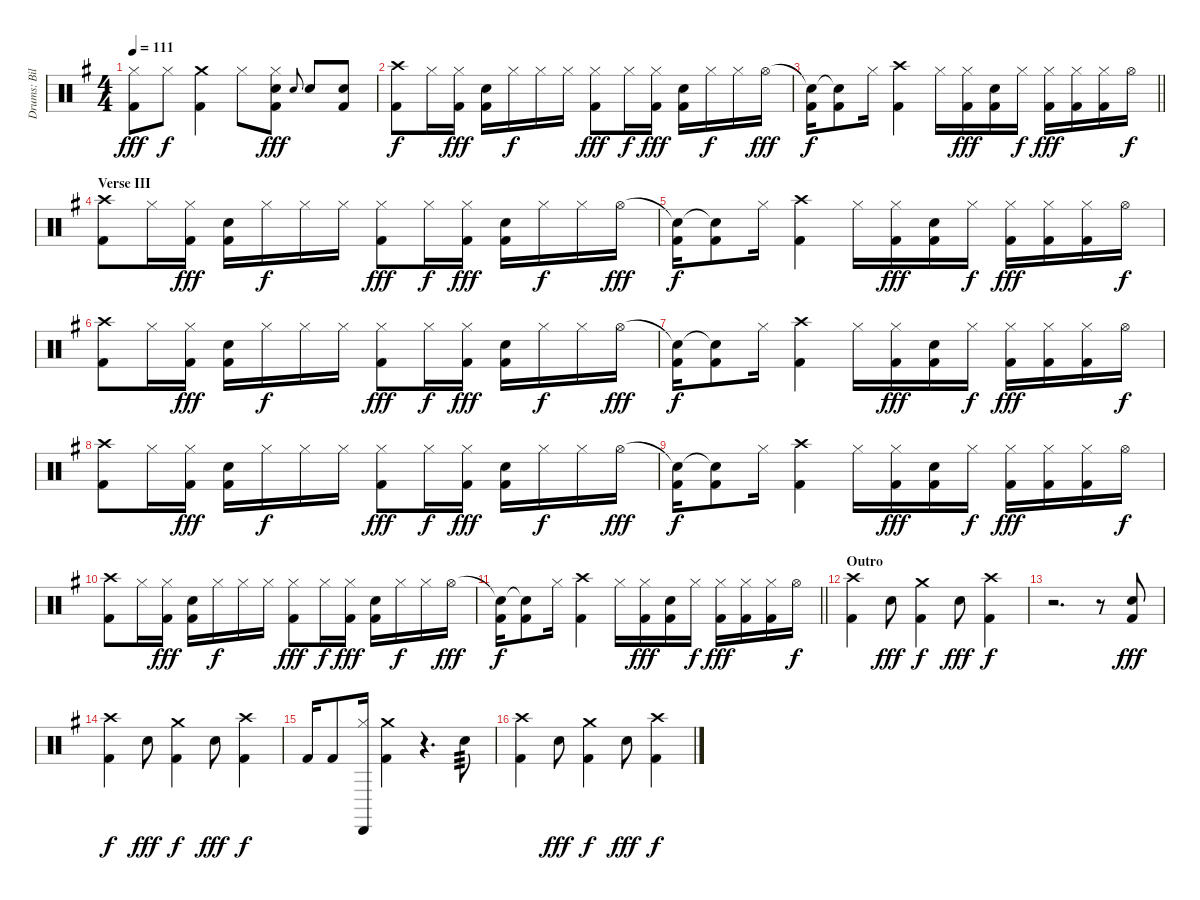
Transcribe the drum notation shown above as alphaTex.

\track ("Drums: Bill" "Drums: Bil") {instrument percussion}
\staff {score}
\articulation defaults
\ts (4 4)
\tempo 111
\clef neutral
\ks g
("Hi-Hat (closed)" "Kick (hit) 2").8{dy fff} "Hi-Hat (closed)".8{dy f} ("Crash medium (hit)" "Kick (hit) 2").4 "Hi-Hat (closed)".8 ("Hi-Hat (closed)" "Electric Snare (hit)" "Kick (hit) 2").8{dy fff} "Snare (hit) 2".8{gr onbeat} "Electric Snare (hit)".8 ("Electric Snare (hit)" "Kick (hit) 2").8 |
("Crash high (hit)" "Kick (hit) 2").8{dy f} "Hi-Hat (closed)".16 ("Hi-Hat (closed)" "Kick (hit) 2").16{dy fff} ("Electric Snare (hit)" "Kick (hit) 2").16 "Hi-Hat (closed)".16{dy f} "Hi-Hat (closed)".16 "Hi-Hat (closed)".16 ("Hi-Hat (closed)" "Kick (hit) 2").8{dy fff} "Hi-Hat (closed)".16{dy f} ("Hi-Hat (closed)" "Kick (hit) 2").16{dy fff} ("Electric Snare (hit)" "Kick (hit) 2").16 "Hi-Hat (closed)".16{dy f} "Hi-Hat (closed)".16 "Hi-Hat (open)".16{dy fff} |
\barLineRight lightlight
("Snare (hit)"{t} "Kick (hit) 2").16{dy f} ("Snare (hit)"{t} "Kick (hit) 2").8 "Hi-Hat (closed)".16 ("Crash high (hit)" "Kick (hit) 2").4 "Hi-Hat (closed)".16 ("Hi-Hat (closed)" "Kick (hit) 2").16{dy fff} ("Electric Snare (hit)" "Kick (hit) 2").16 "Hi-Hat (closed)".16{dy f} ("Hi-Hat (closed)" "Kick (hit) 2").16{dy fff} ("Hi-Hat (closed)" "Kick (hit) 2").16 ("Hi-Hat (closed)" "Kick (hit) 2").16 "Hi-Hat (open)".16{dy f} |
\section ("" "Verse III")
("Crash high (hit)" "Kick (hit) 2").8 "Hi-Hat (closed)".16 ("Hi-Hat (closed)" "Kick (hit) 2").16{dy fff} ("Electric Snare (hit)" "Kick (hit) 2").16 "Hi-Hat (closed)".16{dy f} "Hi-Hat (closed)".16 "Hi-Hat (closed)".16 ("Hi-Hat (closed)" "Kick (hit) 2").8{dy fff} "Hi-Hat (closed)".16{dy f} ("Hi-Hat (closed)" "Kick (hit) 2").16{dy fff} ("Electric Snare (hit)" "Kick (hit) 2").16 "Hi-Hat (closed)".16{dy f} "Hi-Hat (closed)".16 "Hi-Hat (open)".16{dy fff} |
("Snare (hit)"{t} "Kick (hit) 2").16{dy f} ("Snare (hit)"{t} "Kick (hit) 2").8 "Hi-Hat (closed)".16 ("Crash high (hit)" "Kick (hit) 2").4 "Hi-Hat (closed)".16 ("Hi-Hat (closed)" "Kick (hit) 2").16{dy fff} ("Electric Snare (hit)" "Kick (hit) 2").16 "Hi-Hat (closed)".16{dy f} ("Hi-Hat (closed)" "Kick (hit) 2").16{dy fff} ("Hi-Hat (closed)" "Kick (hit) 2").16 ("Hi-Hat (closed)" "Kick (hit) 2").16 "Hi-Hat (open)".16{dy f} |
("Crash high (hit)" "Kick (hit) 2").8 "Hi-Hat (closed)".16 ("Hi-Hat (closed)" "Kick (hit) 2").16{dy fff} ("Electric Snare (hit)" "Kick (hit) 2").16 "Hi-Hat (closed)".16{dy f} "Hi-Hat (closed)".16 "Hi-Hat (closed)".16 ("Hi-Hat (closed)" "Kick (hit) 2").8{dy fff} "Hi-Hat (closed)".16{dy f} ("Hi-Hat (closed)" "Kick (hit) 2").16{dy fff} ("Electric Snare (hit)" "Kick (hit) 2").16 "Hi-Hat (closed)".16{dy f} "Hi-Hat (closed)".16 "Hi-Hat (open)".16{dy fff} |
("Snare (hit)"{t} "Kick (hit) 2").16{dy f} ("Snare (hit)"{t} "Kick (hit) 2").8 "Hi-Hat (closed)".16 ("Crash high (hit)" "Kick (hit) 2").4 "Hi-Hat (closed)".16 ("Hi-Hat (closed)" "Kick (hit) 2").16{dy fff} ("Electric Snare (hit)" "Kick (hit) 2").16 "Hi-Hat (closed)".16{dy f} ("Hi-Hat (closed)" "Kick (hit) 2").16{dy fff} ("Hi-Hat (closed)" "Kick (hit) 2").16 ("Hi-Hat (closed)" "Kick (hit) 2").16 "Hi-Hat (open)".16{dy f} |
("Crash high (hit)" "Kick (hit) 2").8 "Hi-Hat (closed)".16 ("Hi-Hat (closed)" "Kick (hit) 2").16{dy fff} ("Electric Snare (hit)" "Kick (hit) 2").16 "Hi-Hat (closed)".16{dy f} "Hi-Hat (closed)".16 "Hi-Hat (closed)".16 ("Hi-Hat (closed)" "Kick (hit) 2").8{dy fff} "Hi-Hat (closed)".16{dy f} ("Hi-Hat (closed)" "Kick (hit) 2").16{dy fff} ("Electric Snare (hit)" "Kick (hit) 2").16 "Hi-Hat (closed)".16{dy f} "Hi-Hat (closed)".16 "Hi-Hat (open)".16{dy fff} |
("Snare (hit)"{t} "Kick (hit) 2").16{dy f} ("Snare (hit)"{t} "Kick (hit) 2").8 "Hi-Hat (closed)".16 ("Crash high (hit)" "Kick (hit) 2").4 "Hi-Hat (closed)".16 ("Hi-Hat (closed)" "Kick (hit) 2").16{dy fff} ("Electric Snare (hit)" "Kick (hit) 2").16 "Hi-Hat (closed)".16{dy f} ("Hi-Hat (closed)" "Kick (hit) 2").16{dy fff} ("Hi-Hat (closed)" "Kick (hit) 2").16 ("Hi-Hat (closed)" "Kick (hit) 2").16 "Hi-Hat (open)".16{dy f} |
("Crash high (hit)" "Kick (hit) 2").8 "Hi-Hat (closed)".16 ("Hi-Hat (closed)" "Kick (hit) 2").16{dy fff} ("Electric Snare (hit)" "Kick (hit) 2").16 "Hi-Hat (closed)".16{dy f} "Hi-Hat (closed)".16 "Hi-Hat (closed)".16 ("Hi-Hat (closed)" "Kick (hit) 2").8{dy fff} "Hi-Hat (closed)".16{dy f} ("Hi-Hat (closed)" "Kick (hit) 2").16{dy fff} ("Electric Snare (hit)" "Kick (hit) 2").16 "Hi-Hat (closed)".16{dy f} "Hi-Hat (closed)".16 "Hi-Hat (open)".16{dy fff} |
\barLineRight lightlight
("Snare (hit)"{t} "Kick (hit) 2").16{dy f} ("Snare (hit)"{t} "Kick (hit) 2").8 "Hi-Hat (closed)".16 ("Crash high (hit)" "Kick (hit) 2").4 "Hi-Hat (closed)".16 ("Hi-Hat (closed)" "Kick (hit) 2").16{dy fff} ("Electric Snare (hit)" "Kick (hit) 2").16 "Hi-Hat (closed)".16{dy f} ("Hi-Hat (closed)" "Kick (hit) 2").16{dy fff} ("Hi-Hat (closed)" "Kick (hit) 2").16 ("Hi-Hat (closed)" "Kick (hit) 2").16 "Hi-Hat (open)".16{dy f} |
\section ("" "Outro")
("Crash high (hit)" "Kick (hit) 2").4 "Electric Snare (hit)".8{dy fff} ("Crash medium (hit)" "Kick (hit) 2").4{dy f} "Electric Snare (hit)".8{dy fff} ("Crash high (hit)" "Kick (hit) 2").4{dy f} |
r.2{d} r.8 ("Electric Snare (hit)" "Kick (hit) 2").8{dy fff} |
("Crash high (hit)" "Kick (hit) 2").4{dy f} "Electric Snare (hit)".8{dy fff} ("Crash medium (hit)" "Kick (hit) 2").4{dy f} "Electric Snare (hit)".8{dy fff} ("Crash high (hit)" "Kick (hit) 2").4{dy f} |
"Kick (hit) 2".16 "Kick (hit) 2".8 ("Cabasa (hit)" "Hi-Hat (closed)").16 ("Crash medium (hit)" "Kick (hit) 2").4 r.4{d} "Snare (hit) 2".8{tp 3} |
("Crash high (hit)" "Kick (hit) 2").4 "Electric Snare (hit)".8{dy fff} ("Crash medium (hit)" "Kick (hit) 2").4{dy f} "Electric Snare (hit)".8{dy fff} ("Crash high (hit)" "Kick (hit) 2").4{dy f}
